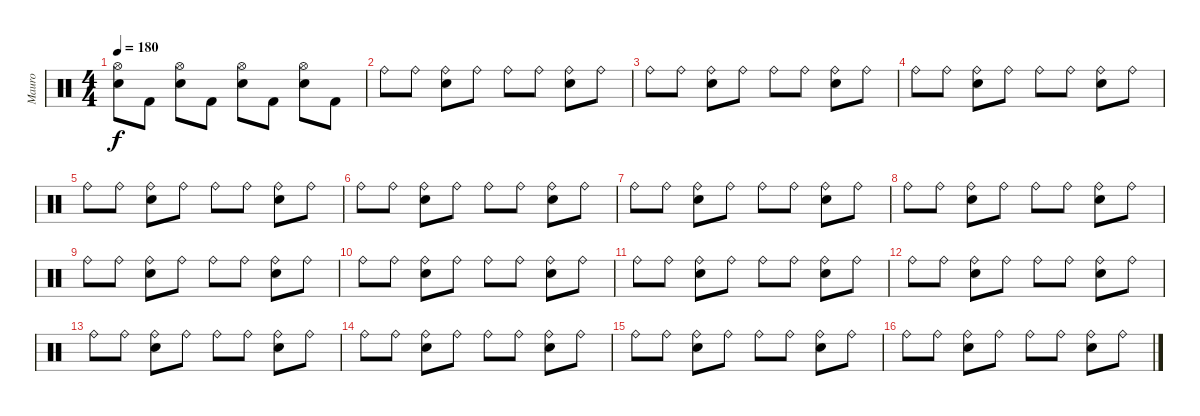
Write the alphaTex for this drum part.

\track ("Mauro" "Mauro") {instrument percussion}
\staff {score}
\articulation defaults
\ts (4 4)
\tempo 180
\clef neutral
\ks c
("Hi-Hat (open)" "Snare (hit) 2").8{dy f} "Kick (hit) 2".8 ("Hi-Hat (open)" "Snare (hit) 2").8 "Kick (hit) 2".8 ("Hi-Hat (open)" "Snare (hit) 2").8 "Kick (hit) 2".8 ("Hi-Hat (open)" "Snare (hit) 2").8 "Kick (hit) 2".8 |
"Ride (bell)".8 "Ride (bell)".8 ("Ride (bell)" "Snare (hit) 2").8 "Ride (bell)".8 "Ride (bell)".8 "Ride (bell)".8 ("Ride (bell)" "Snare (hit) 2").8 "Ride (bell)".8 |
"Ride (bell)".8 "Ride (bell)".8 ("Ride (bell)" "Snare (hit) 2").8 "Ride (bell)".8 "Ride (bell)".8 "Ride (bell)".8 ("Ride (bell)" "Snare (hit) 2").8 "Ride (bell)".8 |
"Ride (bell)".8 "Ride (bell)".8 ("Ride (bell)" "Snare (hit) 2").8 "Ride (bell)".8 "Ride (bell)".8 "Ride (bell)".8 ("Ride (bell)" "Snare (hit) 2").8 "Ride (bell)".8 |
"Ride (bell)".8 "Ride (bell)".8 ("Ride (bell)" "Snare (hit) 2").8 "Ride (bell)".8 "Ride (bell)".8 "Ride (bell)".8 ("Ride (bell)" "Snare (hit) 2").8 "Ride (bell)".8 |
"Ride (bell)".8 "Ride (bell)".8 ("Ride (bell)" "Snare (hit) 2").8 "Ride (bell)".8 "Ride (bell)".8 "Ride (bell)".8 ("Ride (bell)" "Snare (hit) 2").8 "Ride (bell)".8 |
"Ride (bell)".8 "Ride (bell)".8 ("Ride (bell)" "Snare (hit) 2").8 "Ride (bell)".8 "Ride (bell)".8 "Ride (bell)".8 ("Ride (bell)" "Snare (hit) 2").8 "Ride (bell)".8 |
"Ride (bell)".8 "Ride (bell)".8 ("Ride (bell)" "Snare (hit) 2").8 "Ride (bell)".8 "Ride (bell)".8 "Ride (bell)".8 ("Ride (bell)" "Snare (hit) 2").8 "Ride (bell)".8 |
"Ride (bell)".8 "Ride (bell)".8 ("Ride (bell)" "Snare (hit) 2").8 "Ride (bell)".8 "Ride (bell)".8 "Ride (bell)".8 ("Ride (bell)" "Snare (hit) 2").8 "Ride (bell)".8 |
"Ride (bell)".8 "Ride (bell)".8 ("Ride (bell)" "Snare (hit) 2").8 "Ride (bell)".8 "Ride (bell)".8 "Ride (bell)".8 ("Ride (bell)" "Snare (hit) 2").8 "Ride (bell)".8 |
"Ride (bell)".8 "Ride (bell)".8 ("Ride (bell)" "Snare (hit) 2").8 "Ride (bell)".8 "Ride (bell)".8 "Ride (bell)".8 ("Ride (bell)" "Snare (hit) 2").8 "Ride (bell)".8 |
"Ride (bell)".8 "Ride (bell)".8 ("Ride (bell)" "Snare (hit) 2").8 "Ride (bell)".8 "Ride (bell)".8 "Ride (bell)".8 ("Ride (bell)" "Snare (hit) 2").8 "Ride (bell)".8 |
"Ride (bell)".8 "Ride (bell)".8 ("Ride (bell)" "Snare (hit) 2").8 "Ride (bell)".8 "Ride (bell)".8 "Ride (bell)".8 ("Ride (bell)" "Snare (hit) 2").8 "Ride (bell)".8 |
"Ride (bell)".8 "Ride (bell)".8 ("Ride (bell)" "Snare (hit) 2").8 "Ride (bell)".8 "Ride (bell)".8 "Ride (bell)".8 ("Ride (bell)" "Snare (hit) 2").8 "Ride (bell)".8 |
"Ride (bell)".8 "Ride (bell)".8 ("Ride (bell)" "Snare (hit) 2").8 "Ride (bell)".8 "Ride (bell)".8 "Ride (bell)".8 ("Ride (bell)" "Snare (hit) 2").8 "Ride (bell)".8 |
"Ride (bell)".8 "Ride (bell)".8 ("Ride (bell)" "Snare (hit) 2").8 "Ride (bell)".8 "Ride (bell)".8 "Ride (bell)".8 ("Ride (bell)" "Snare (hit) 2").8 "Ride (bell)".8
